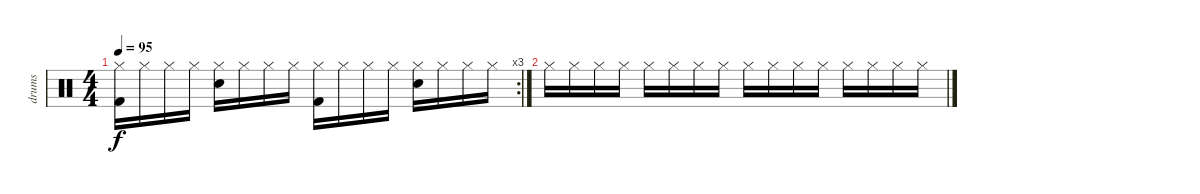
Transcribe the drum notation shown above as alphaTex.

\track ("drums" "drums") {instrument percussion}
\staff {score}
\articulation defaults
\rc 3
\ts (4 4)
\tempo 95
\clef neutral
\ks c
("Kick (hit) 2" "Hi-Hat (closed)").16{dy f} "Hi-Hat (closed)".16 "Hi-Hat (closed)".16 "Hi-Hat (closed)".16 ("Snare (hit) 2" "Hi-Hat (closed)").16 "Hi-Hat (closed)".16 "Hi-Hat (closed)".16 "Hi-Hat (closed)".16 ("Kick (hit) 2" "Hi-Hat (closed)").16 "Hi-Hat (closed)".16 "Hi-Hat (closed)".16 "Hi-Hat (closed)".16 ("Snare (hit) 2" "Hi-Hat (closed)").16 "Hi-Hat (closed)".16 "Hi-Hat (closed)".16 "Hi-Hat (closed)".16 |
"Hi-Hat (closed)".16{volume 0} "Hi-Hat (closed)".16 "Hi-Hat (closed)".16 "Hi-Hat (closed)".16 "Hi-Hat (closed)".16 "Hi-Hat (closed)".16 "Hi-Hat (closed)".16 "Hi-Hat (closed)".16 "Hi-Hat (closed)".16 "Hi-Hat (closed)".16 "Hi-Hat (closed)".16 "Hi-Hat (closed)".16 "Hi-Hat (closed)".16 "Hi-Hat (closed)".16 "Hi-Hat (closed)".16 "Hi-Hat (closed)".16
